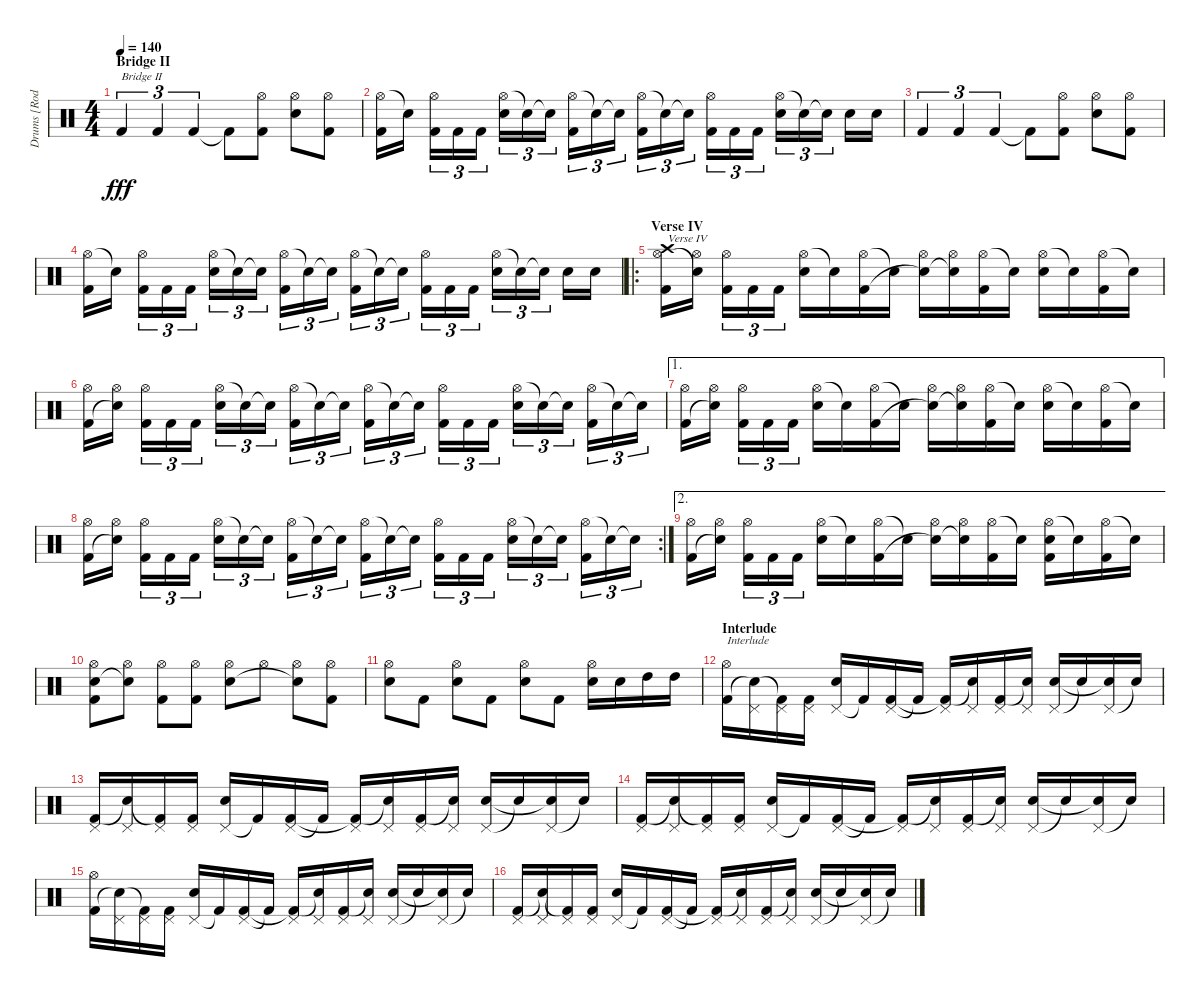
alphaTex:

\track ("Drums [Rodney Holder]" "Drums [Rod") {instrument percussion}
\staff {score}
\articulation defaults
\ts (4 4)
\section ("" "Bridge II")
\tempo 140
\clef neutral
\ks c "Kick (hit) 2".4{tu (3 2) txt "Bridge II" dy fff} "Kick (hit) 2".4{tu (3 2)} "Kick (hit) 2".4{tu (3 2)} "Kick (hit) 2"{t}.8
("Hi-Hat (open)" "Kick (hit) 2").8 ("Hi-Hat (open)" "Electric Snare (hit)").8 ("Hi-Hat (open)" "Kick (hit) 2").8 |
("Hi-Hat (open)" "Kick (hit) 2").16 "Snare (hit)"{t}.16 ("Hi-Hat (open)" "Kick (hit) 2").16{tu (3 2)} "Kick (hit) 2".16{tu (3 2)} "Kick (hit) 2".16{tu (3 2)} ("Hi-Hat (open)" "Electric Snare (hit)").16{tu (3 2)} "Snare (hit)"{t}.16{tu (3 2)} "Snare (hit)"{t}.16{tu (3 2)} ("Hi-Hat (open)" "Kick (hit) 2").16{tu (3 2)} "Snare (hit)"{t}.16{tu (3 2)} "Snare (hit)"{t}.16{tu (3 2)} ("Hi-Hat (open)" "Kick (hit) 2").16{tu (3 2)} "Snare (hit)"{t}.16{tu (3 2)} "Snare (hit)"{t}.16{tu (3 2)} ("Hi-Hat (open)" "Kick (hit) 2").16{tu (3 2)} "Kick (hit) 2".16{tu (3 2)} "Kick (hit) 2".16{tu (3 2)} ("Hi-Hat (open)" "Electric Snare (hit)").16{tu (3 2)} "Snare (hit)"{t}.16{tu (3 2)} "Snare (hit)"{t}.16{tu (3 2)} "Electric Snare (hit)".16 "Electric Snare (hit)".16 |
"Kick (hit) 2".4{tu (3 2)} "Kick (hit) 2".4{tu (3 2)} "Kick (hit) 2".4{tu (3 2)} "Kick (hit) 2"{t}.8 ("Hi-Hat (open)" "Kick (hit) 2").8 ("Hi-Hat (open)" "Electric Snare (hit)").8 ("Hi-Hat (open)" "Kick (hit) 2").8 |
("Hi-Hat (open)" "Kick (hit) 2").16 "Snare (hit)"{t}.16 ("Hi-Hat (open)" "Kick (hit) 2").16{tu (3 2)} "Kick (hit) 2".16{tu (3 2)} "Kick (hit) 2".16{tu (3 2)} ("Hi-Hat (open)" "Electric Snare (hit)").16{tu (3 2)} "Snare (hit)"{t}.16{tu (3 2)} "Snare (hit)"{t}.16{tu (3 2)} ("Hi-Hat (open)" "Kick (hit) 2").16{tu (3 2)} "Snare (hit)"{t}.16{tu (3 2)} "Snare (hit)"{t}.16{tu (3 2)} ("Hi-Hat (open)" "Kick (hit) 2").16{tu (3 2)} "Snare (hit)"{t}.16{tu (3 2)} "Snare (hit)"{t}.16{tu (3 2)} ("Hi-Hat (open)" "Kick (hit) 2").16{tu (3 2)} "Kick (hit) 2".16{tu (3 2)} "Kick (hit) 2".16{tu (3 2)} ("Hi-Hat (open)" "Electric Snare (hit)").16{tu (3 2)} "Snare (hit)"{t}.16{tu (3 2)} "Snare (hit)"{t}.16{tu (3 2)} "Electric Snare (hit)".16 "Electric Snare (hit)".16 |
\ro
\section ("" "Verse IV")
("Crash high (hit)" "Hi-Hat (open)" "Kick (hit) 2").16{txt "Verse IV"} ("Hi-Hat (open)" "Snare (hit)"{t}).16 ("Hi-Hat (open)" "Kick (hit) 2").16{tu (3 2)} "Kick (hit) 2".16{tu (3 2)} "Kick (hit) 2".16{tu (3 2)} ("Hi-Hat (open)" "Electric Snare (hit)").16 "Snare (hit)"{t}.16 ("Hi-Hat (open)" "Kick (hit) 2").16 "Snare (hit)"{t}.16 ("Hi-Hat (open)" "Snare (hit)"{t}).16 ("Hi-Hat (open)" "Snare (hit)"{t}).16 ("Hi-Hat (open)" "Kick (hit) 2").16 "Snare (hit)"{t}.16 ("Hi-Hat (open)" "Electric Snare (hit)").16 "Snare (hit)"{t}.16 ("Hi-Hat (open)" "Kick (hit) 2").16 "Snare (hit)"{t}.16 |
("Hi-Hat (open)" "Kick (hit) 2").16 ("Hi-Hat (open)" "Snare (hit)"{t}).16 ("Hi-Hat (open)" "Kick (hit) 2").16{tu (3 2)} "Kick (hit) 2".16{tu (3 2)} "Kick (hit) 2".16{tu (3 2)} ("Hi-Hat (open)" "Electric Snare (hit)").16{tu (3 2)} "Snare (hit)"{t}.16{tu (3 2)} "Snare (hit)"{t}.16{tu (3 2)} ("Hi-Hat (open)" "Kick (hit) 2").16{tu (3 2)} "Snare (hit)"{t}.16{tu (3 2)} "Snare (hit)"{t}.16{tu (3 2)} ("Hi-Hat (open)" "Kick (hit) 2").16{tu (3 2)} "Snare (hit)"{t}.16{tu (3 2)} "Snare (hit)"{t}.16{tu (3 2)} ("Hi-Hat (open)" "Kick (hit) 2").16{tu (3 2)} "Kick (hit) 2".16{tu (3 2)} "Kick (hit) 2".16{tu (3 2)} ("Hi-Hat (open)" "Electric Snare (hit)").16{tu (3 2)} "Snare (hit)"{t}.16{tu (3 2)} "Snare (hit)"{t}.16{tu (3 2)} ("Hi-Hat (open)" "Kick (hit) 2").16{tu (3 2)} "Snare (hit)"{t}.16{tu (3 2)} "Snare (hit)"{t}.16{tu (3 2)} |
\ae 1
("Hi-Hat (open)" "Kick (hit) 2").16 ("Hi-Hat (open)" "Snare (hit)"{t}).16 ("Hi-Hat (open)" "Kick (hit) 2").16{tu (3 2)} "Kick (hit) 2".16{tu (3 2)} "Kick (hit) 2".16{tu (3 2)} ("Hi-Hat (open)" "Electric Snare (hit)").16 "Snare (hit)"{t}.16 ("Hi-Hat (open)" "Kick (hit) 2").16 "Snare (hit)"{t}.16 ("Hi-Hat (open)" "Snare (hit)"{t}).16 ("Hi-Hat (open)" "Snare (hit)"{t}).16 ("Hi-Hat (open)" "Kick (hit) 2").16 "Snare (hit)"{t}.16 ("Hi-Hat (open)" "Electric Snare (hit)").16 "Snare (hit)"{t}.16 ("Hi-Hat (open)" "Kick (hit) 2").16 "Snare (hit)"{t}.16 |
\rc 2
("Hi-Hat (open)" "Kick (hit) 2").16 ("Hi-Hat (open)" "Snare (hit)"{t}).16 ("Hi-Hat (open)" "Kick (hit) 2").16{tu (3 2)} "Kick (hit) 2".16{tu (3 2)} "Kick (hit) 2".16{tu (3 2)} ("Hi-Hat (open)" "Electric Snare (hit)").16{tu (3 2)} "Snare (hit)"{t}.16{tu (3 2)} "Snare (hit)"{t}.16{tu (3 2)} ("Hi-Hat (open)" "Kick (hit) 2").16{tu (3 2)} "Snare (hit)"{t}.16{tu (3 2)} "Snare (hit)"{t}.16{tu (3 2)} ("Hi-Hat (open)" "Kick (hit) 2").16{tu (3 2)} "Snare (hit)"{t}.16{tu (3 2)} "Snare (hit)"{t}.16{tu (3 2)} ("Hi-Hat (open)" "Kick (hit) 2").16{tu (3 2)} "Kick (hit) 2".16{tu (3 2)} "Kick (hit) 2".16{tu (3 2)} ("Hi-Hat (open)" "Electric Snare (hit)").16{tu (3 2)} "Snare (hit)"{t}.16{tu (3 2)} "Snare (hit)"{t}.16{tu (3 2)} ("Hi-Hat (open)" "Kick (hit) 2").16{tu (3 2)} "Snare (hit)"{t}.16{tu (3 2)} "Snare (hit)"{t}.16{tu (3 2)} |
\ae 2
("Hi-Hat (open)" "Kick (hit) 2").16 ("Hi-Hat (open)" "Snare (hit)"{t}).16 ("Hi-Hat (open)" "Kick (hit) 2").16{tu (3 2)} "Kick (hit) 2".16{tu (3 2)} "Kick (hit) 2".16{tu (3 2)} ("Hi-Hat (open)" "Electric Snare (hit)").16 "Snare (hit)"{t}.16 ("Hi-Hat (open)" "Kick (hit) 2").16 "Snare (hit)"{t}.16 ("Hi-Hat (open)" "Snare (hit)"{t}).16 ("Hi-Hat (open)" "Snare (hit)"{t}).16 ("Hi-Hat (open)" "Kick (hit) 2").16 "Snare (hit)"{t}.16 ("Hi-Hat (open)" "Electric Snare (hit)" "Kick (hit) 2").16 "Snare (hit)"{t}.16 ("Hi-Hat (open)" "Kick (hit) 2").16 "Snare (hit)"{t}.16 |
("Hi-Hat (open)" "Electric Snare (hit)" "Kick (hit) 2").8 ("Hi-Hat (open)" "Electric Snare (hit)"{t}).8 ("Hi-Hat (open)" "Kick (hit) 2").8 ("Hi-Hat (open)" "Kick (hit) 2").8 ("Hi-Hat (open)" "Electric Snare (hit)").8 "Hi-Hat (open)".8 ("Hi-Hat (open)" "Snare (hit)"{t}).8 ("Hi-Hat (open)" "Kick (hit) 2").8 |
("Hi-Hat (open)" "Electric Snare (hit)").8 "Kick (hit) 2".8 ("Hi-Hat (open)" "Electric Snare (hit)").8 "Kick (hit) 2".8 ("Hi-Hat (open)" "Electric Snare (hit)").8 "Kick (hit) 2".8 ("Hi-Hat (open)" "Electric Snare (hit)").16 "Electric Snare (hit)".16 "High Tom (hit)".16 "High Tom (hit)".16 |
\section ("" "Interlude")
("Hi-Hat (open)" "Kick (hit) 2").16{txt "Interlude"} ("Pedal Hi-Hat (hit)" "Snare (hit)"{t}).16 ("Pedal Hi-Hat (hit)" "Kick (hit) 2"{t}).16 ("Pedal Hi-Hat (hit)" "Kick (hit) 2").16 ("Pedal Hi-Hat (hit)" "Electric Snare (hit)").16 "Kick (hit) 2"{t}.16 ("Pedal Hi-Hat (hit)" "Kick (hit) 2").16 "Kick (hit) 2"{t}.16 ("Pedal Hi-Hat (hit)" "Kick (hit) 2"{t}).16 ("Pedal Hi-Hat (hit)" "Snare (hit)"{t}).16 ("Pedal Hi-Hat (hit)" "Kick (hit) 2").16 ("Pedal Hi-Hat (hit)" "Snare (hit)"{t}).16 ("Pedal Hi-Hat (hit)" "Electric Snare (hit)").16 "Snare (hit)"{t}.16 ("Pedal Hi-Hat (hit)" "Snare (hit)"{t}).16 "Snare (hit)"{t}.16 |
("Pedal Hi-Hat (hit)" "Kick (hit) 2").16 ("Pedal Hi-Hat (hit)" "Snare (hit)"{t}).16 ("Pedal Hi-Hat (hit)" "Kick (hit) 2"{t}).16 ("Pedal Hi-Hat (hit)" "Kick (hit) 2").16 ("Pedal Hi-Hat (hit)" "Electric Snare (hit)").16 "Kick (hit) 2"{t}.16 ("Pedal Hi-Hat (hit)" "Kick (hit) 2").16 "Kick (hit) 2"{t}.16 ("Pedal Hi-Hat (hit)" "Kick (hit) 2"{t}).16 ("Pedal Hi-Hat (hit)" "Snare (hit)"{t}).16 ("Pedal Hi-Hat (hit)" "Kick (hit) 2").16 ("Pedal Hi-Hat (hit)" "Snare (hit)"{t}).16 ("Pedal Hi-Hat (hit)" "Electric Snare (hit)").16 "Snare (hit)"{t}.16 ("Pedal Hi-Hat (hit)" "Snare (hit)"{t}).16 "Snare (hit)"{t}.16 |
("Pedal Hi-Hat (hit)" "Kick (hit) 2").16 ("Pedal Hi-Hat (hit)" "Snare (hit)"{t}).16 ("Pedal Hi-Hat (hit)" "Kick (hit) 2"{t}).16 ("Pedal Hi-Hat (hit)" "Kick (hit) 2").16 ("Pedal Hi-Hat (hit)" "Electric Snare (hit)").16 "Kick (hit) 2"{t}.16 ("Pedal Hi-Hat (hit)" "Kick (hit) 2").16 "Kick (hit) 2"{t}.16 ("Pedal Hi-Hat (hit)" "Kick (hit) 2"{t}).16 ("Pedal Hi-Hat (hit)" "Snare (hit)"{t}).16 ("Pedal Hi-Hat (hit)" "Kick (hit) 2").16 ("Pedal Hi-Hat (hit)" "Snare (hit)"{t}).16 ("Pedal Hi-Hat (hit)" "Electric Snare (hit)").16 "Snare (hit)"{t}.16 ("Pedal Hi-Hat (hit)" "Snare (hit)"{t}).16 "Snare (hit)"{t}.16 |
("Hi-Hat (open)" "Kick (hit) 2").16 ("Pedal Hi-Hat (hit)" "Snare (hit)"{t}).16 ("Pedal Hi-Hat (hit)" "Kick (hit) 2"{t}).16 ("Pedal Hi-Hat (hit)" "Kick (hit) 2").16 ("Pedal Hi-Hat (hit)" "Electric Snare (hit)").16 "Kick (hit) 2"{t}.16 ("Pedal Hi-Hat (hit)" "Kick (hit) 2").16 "Kick (hit) 2"{t}.16 ("Pedal Hi-Hat (hit)" "Kick (hit) 2"{t}).16 ("Pedal Hi-Hat (hit)" "Snare (hit)"{t}).16 ("Pedal Hi-Hat (hit)" "Kick (hit) 2").16 ("Pedal Hi-Hat (hit)" "Snare (hit)"{t}).16 ("Pedal Hi-Hat (hit)" "Electric Snare (hit)").16 "Snare (hit)"{t}.16 ("Pedal Hi-Hat (hit)" "Snare (hit)"{t}).16 "Snare (hit)"{t}.16 |
("Pedal Hi-Hat (hit)" "Kick (hit) 2").16 ("Pedal Hi-Hat (hit)" "Snare (hit)"{t}).16 ("Pedal Hi-Hat (hit)" "Kick (hit) 2"{t}).16 ("Pedal Hi-Hat (hit)" "Kick (hit) 2").16 ("Pedal Hi-Hat (hit)" "Electric Snare (hit)").16 "Kick (hit) 2"{t}.16 ("Pedal Hi-Hat (hit)" "Kick (hit) 2").16 "Kick (hit) 2"{t}.16 ("Pedal Hi-Hat (hit)" "Kick (hit) 2"{t}).16 ("Pedal Hi-Hat (hit)" "Snare (hit)"{t}).16 ("Pedal Hi-Hat (hit)" "Kick (hit) 2").16 ("Pedal Hi-Hat (hit)" "Snare (hit)"{t}).16 ("Pedal Hi-Hat (hit)" "Electric Snare (hit)").16 "Snare (hit)"{t}.16 ("Pedal Hi-Hat (hit)" "Snare (hit)"{t}).16 "Snare (hit)"{t}.16
